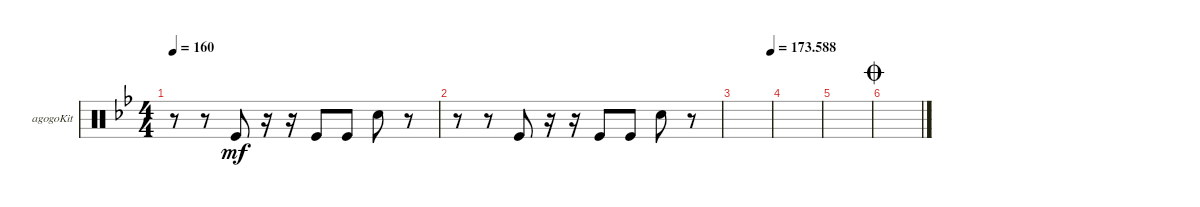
\defaultSystemsLayout 4
\bracketExtendMode groupsimilarinstruments
\firstSystemTrackNameOrientation horizontal
\otherSystemsTrackNameOrientation horizontal
\track ("Triangle" "agogoKit") {instrument percussion}
\staff {score}
\articulation defaults
\ts (4 4)
\tempo 160
\clef neutral
\ks bb
r.8{dy mf} r.8 "Kick (hit)".8 r.16 r.16 "Kick (hit)".8 "Kick (hit)".8 "Snare (hit) 2".8 r.8 |
r.8 r.8 "Kick (hit)".8 r.16 r.16 "Kick (hit)".8 "Kick (hit)".8 "Snare (hit) 2".8 r.8 |
\tempo (173.588 1)
|
|
|
\jump coda
